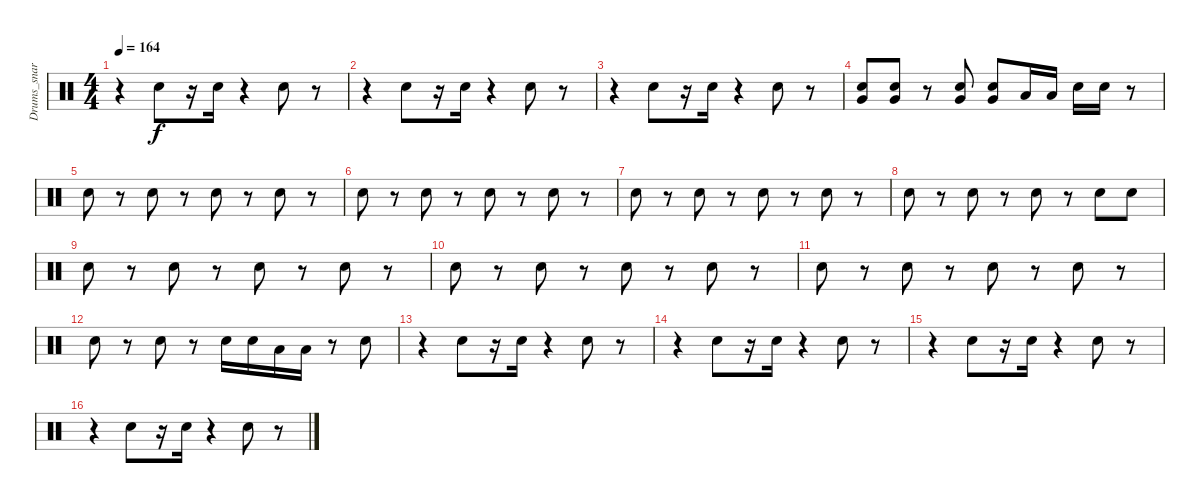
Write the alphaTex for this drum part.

\track ("Drums_snare&tom" "Drums_snar") {instrument percussion}
\staff {score}
\articulation defaults
\ts (4 4)
\tempo 164
\clef neutral
\ks c
r.4{dy f} "Snare (hit) 2".8 r.16 "Snare (hit) 2".16 r.4 "Snare (hit) 2".8 r.8 |
r.4 "Snare (hit) 2".8 r.16 "Snare (hit) 2".16 r.4 "Snare (hit) 2".8 r.8 |
r.4 "Snare (hit) 2".8 r.16 "Snare (hit) 2".16 r.4 "Snare (hit) 2".8 r.8 |
("Snare (hit) 2" "Very Low Tom (hit)").8 ("Snare (hit) 2" "Very Low Tom (hit)").8 r.8 ("Very Low Tom (hit)" "Snare (hit) 2").8 ("Very Low Tom (hit)" "Snare (hit) 2").8 "Low Tom (hit)".16 "Low Tom (hit)".16 "Snare (hit) 2".16 "Snare (hit) 2".16 r.8 |
"Snare (hit) 2".8 r.8 "Snare (hit) 2".8 r.8 "Snare (hit) 2".8 r.8 "Snare (hit) 2".8 r.8 |
"Snare (hit) 2".8 r.8 "Snare (hit) 2".8 r.8 "Snare (hit) 2".8 r.8 "Snare (hit) 2".8 r.8 |
"Snare (hit) 2".8 r.8 "Snare (hit) 2".8 r.8 "Snare (hit) 2".8 r.8 "Snare (hit) 2".8 r.8 |
"Snare (hit) 2".8 r.8 "Snare (hit) 2".8 r.8 "Snare (hit) 2".8 r.8 "Snare (hit) 2".8 "Snare (hit) 2".8 |
"Snare (hit) 2".8 r.8 "Snare (hit) 2".8 r.8 "Snare (hit) 2".8 r.8 "Snare (hit) 2".8 r.8 |
"Snare (hit) 2".8 r.8 "Snare (hit) 2".8 r.8 "Snare (hit) 2".8 r.8 "Snare (hit) 2".8 r.8 |
"Snare (hit) 2".8 r.8 "Snare (hit) 2".8 r.8 "Snare (hit) 2".8 r.8 "Snare (hit) 2".8 r.8 |
"Snare (hit) 2".8 r.8 "Snare (hit) 2".8 r.8 "Snare (hit) 2".16 "Snare (hit) 2".16 "Low Tom (hit)".16 "Low Tom (hit)".16 r.8 "Snare (hit) 2".8 |
r.4 "Snare (hit) 2".8 r.16 "Snare (hit) 2".16 r.4 "Snare (hit) 2".8 r.8 |
r.4 "Snare (hit) 2".8 r.16 "Snare (hit) 2".16 r.4 "Snare (hit) 2".8 r.8 |
r.4 "Snare (hit) 2".8 r.16 "Snare (hit) 2".16 r.4 "Snare (hit) 2".8 r.8 |
r.4 "Snare (hit) 2".8 r.16 "Snare (hit) 2".16 r.4 "Snare (hit) 2".8 r.8
